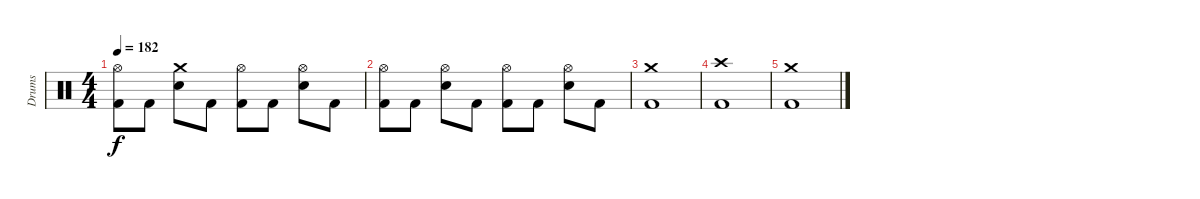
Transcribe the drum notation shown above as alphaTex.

\track ("Drums" "Drums") {instrument percussion}
\staff {score}
\articulation defaults
\ts (4 4)
\tempo 182
\clef neutral
\ks c
("Hi-Hat (open)" "Kick (hit) 2").8{dy f} "Kick (hit) 2".8 ("Crash medium (hit)" "Electric Snare (hit)").8 "Kick (hit) 2".8 ("Hi-Hat (open)" "Kick (hit) 2").8 "Kick (hit) 2".8 ("Hi-Hat (open)" "Electric Snare (hit)").8 "Kick (hit) 2".8 |
("Hi-Hat (open)" "Kick (hit) 2").8 "Kick (hit) 2".8 ("Hi-Hat (open)" "Electric Snare (hit)").8 "Kick (hit) 2".8 ("Hi-Hat (open)" "Kick (hit) 2").8 "Kick (hit) 2".8 ("Hi-Hat (open)" "Electric Snare (hit)").8 "Kick (hit) 2".8 |
("Crash medium (hit)" "Kick (hit) 2").1 |
("Crash high (hit)" "Kick (hit) 2").1 |
("Crash medium (hit)" "Kick (hit) 2").1
